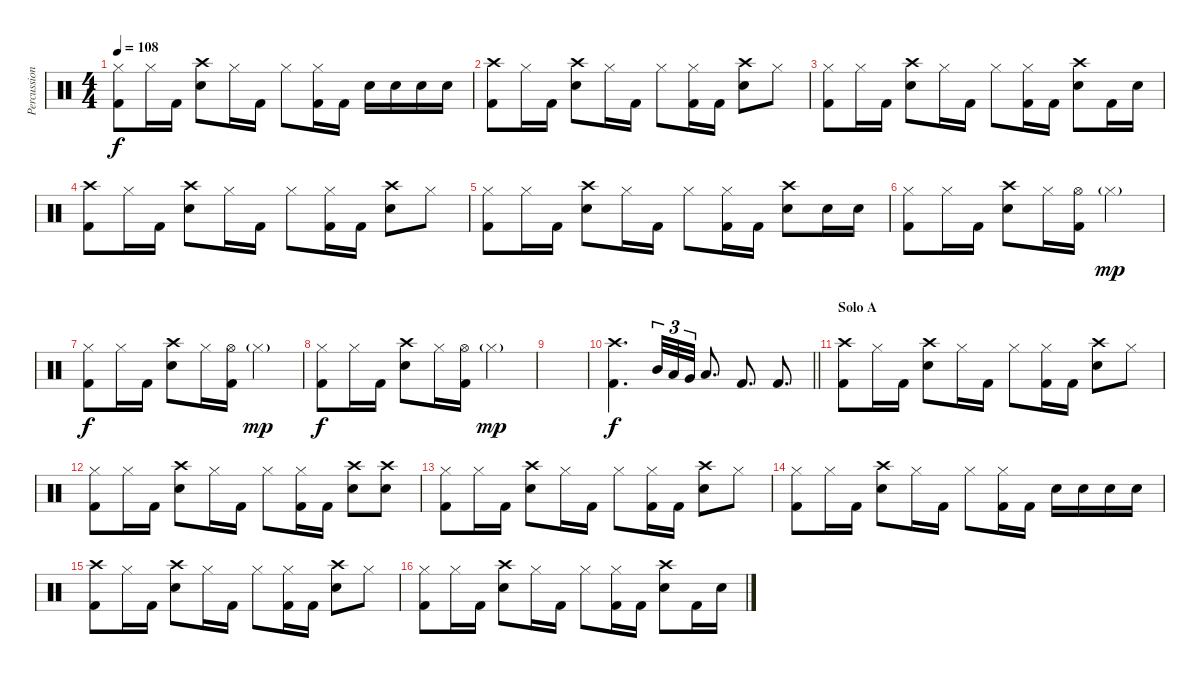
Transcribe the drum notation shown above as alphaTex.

\track ("Percussion" "Percussion") {instrument percussion}
\staff {score}
\articulation defaults
\ts (4 4)
\tempo 108
\clef neutral
\ks c
("Hi-Hat (closed)" "Kick (hit) 2").8{dy f} "Hi-Hat (closed)".16 "Kick (hit) 2".16 ("Crash high (hit)" "Snare (hit) 2").8 "Hi-Hat (closed)".16 "Kick (hit) 2".16 "Hi-Hat (closed)".8 ("Hi-Hat (closed)" "Kick (hit) 2").16 "Kick (hit) 2".16 "Snare (hit) 2".16 "Snare (hit) 2".16 "Snare (hit) 2".16 "Snare (hit) 2".16 |
("Crash high (hit)" "Kick (hit) 2").8 "Hi-Hat (closed)".16 "Kick (hit) 2".16 ("Crash high (hit)" "Snare (hit) 2").8 "Hi-Hat (closed)".16 "Kick (hit) 2".16 "Hi-Hat (closed)".8 ("Hi-Hat (closed)" "Kick (hit) 2").16 "Kick (hit) 2".16 ("Crash high (hit)" "Snare (hit) 2").8 "Hi-Hat (closed)".8 |
("Hi-Hat (closed)" "Kick (hit) 2").8 "Hi-Hat (closed)".16 "Kick (hit) 2".16 ("Crash high (hit)" "Snare (hit) 2").8 "Hi-Hat (closed)".16 "Kick (hit) 2".16 "Hi-Hat (closed)".8 ("Hi-Hat (closed)" "Kick (hit) 2").16 "Kick (hit) 2".16 ("Crash high (hit)" "Snare (hit) 2").8 "Kick (hit) 2".16 "Snare (hit) 2".16 |
("Crash high (hit)" "Kick (hit) 2").8 "Hi-Hat (closed)".16 "Kick (hit) 2".16 ("Crash high (hit)" "Snare (hit) 2").8 "Hi-Hat (closed)".16 "Kick (hit) 2".16 "Hi-Hat (closed)".8 ("Hi-Hat (closed)" "Kick (hit) 2").16 "Kick (hit) 2".16 ("Crash high (hit)" "Snare (hit) 2").8 "Hi-Hat (closed)".8 |
("Hi-Hat (closed)" "Kick (hit) 2").8 "Hi-Hat (closed)".16 "Kick (hit) 2".16 ("Crash high (hit)" "Snare (hit) 2").8 "Hi-Hat (closed)".16 "Kick (hit) 2".16 "Hi-Hat (closed)".8 ("Hi-Hat (closed)" "Kick (hit) 2").16 "Kick (hit) 2".16 ("Crash high (hit)" "Snare (hit) 2").8 "Snare (hit) 2".16 "Snare (hit) 2".16 |
("Hi-Hat (closed)" "Kick (hit) 2").8 "Hi-Hat (closed)".16 "Kick (hit) 2".16 ("Crash high (hit)" "Snare (hit) 2").8 "Hi-Hat (closed)".16 ("Hi-Hat (open)" "Kick (hit) 2").16 "Hi-Hat (closed)"{g}.2{dy mp} |
("Hi-Hat (closed)" "Kick (hit) 2").8{dy f} "Hi-Hat (closed)".16 "Kick (hit) 2".16 ("Crash high (hit)" "Snare (hit) 2").8 "Hi-Hat (closed)".16 ("Hi-Hat (open)" "Kick (hit) 2").16 "Hi-Hat (closed)"{g}.2{dy mp} |
("Hi-Hat (closed)" "Kick (hit) 2").8{dy f} "Hi-Hat (closed)".16 "Kick (hit) 2".16 ("Crash high (hit)" "Snare (hit) 2").8 "Hi-Hat (closed)".16 ("Hi-Hat (open)" "Kick (hit) 2").16 "Hi-Hat (closed)"{g}.2{dy mp} |
|
\barLineRight lightlight
("Crash high (hit)" "Kick (hit) 2").4{d dy f} "Mid Tom (hit)".32{tu (3 2)} "Low Tom (hit)".32{tu (3 2)} "Very Low Tom (hit)".32{tu (3 2)} "Low Floor Tom (hit)".8{d} "Kick (hit) 2".8{d} "Kick (hit) 2".8{d} |
\section ("" "Solo A")
("Crash high (hit)" "Kick (hit) 2").8 "Hi-Hat (closed)".16 "Kick (hit) 2".16 ("Crash high (hit)" "Snare (hit) 2").8 "Hi-Hat (closed)".16 "Kick (hit) 2".16 "Hi-Hat (closed)".8 ("Hi-Hat (closed)" "Kick (hit) 2").16 "Kick (hit) 2".16 ("Crash high (hit)" "Snare (hit) 2").8 "Hi-Hat (closed)".8 |
("Hi-Hat (closed)" "Kick (hit) 2").8 "Hi-Hat (closed)".16 "Kick (hit) 2".16 ("Crash high (hit)" "Snare (hit) 2").8 "Hi-Hat (closed)".16 "Kick (hit) 2".16 "Hi-Hat (closed)".8 ("Hi-Hat (closed)" "Kick (hit) 2").16 "Kick (hit) 2".16 ("Crash high (hit)" "Snare (hit) 2").8 ("Crash high (hit)" "Snare (hit) 2").8 |
("Hi-Hat (closed)" "Kick (hit) 2").8 "Hi-Hat (closed)".16 "Kick (hit) 2".16 ("Crash high (hit)" "Snare (hit) 2").8 "Hi-Hat (closed)".16 "Kick (hit) 2".16 "Hi-Hat (closed)".8 ("Hi-Hat (closed)" "Kick (hit) 2").16 "Kick (hit) 2".16 ("Crash high (hit)" "Snare (hit) 2").8 "Hi-Hat (closed)".8 |
("Hi-Hat (closed)" "Kick (hit) 2").8 "Hi-Hat (closed)".16 "Kick (hit) 2".16 ("Crash high (hit)" "Snare (hit) 2").8 "Hi-Hat (closed)".16 "Kick (hit) 2".16 "Hi-Hat (closed)".8 ("Hi-Hat (closed)" "Kick (hit) 2").16 "Kick (hit) 2".16 "Snare (hit) 2".16 "Snare (hit) 2".16 "Snare (hit) 2".16 "Snare (hit) 2".16 |
("Crash high (hit)" "Kick (hit) 2").8 "Hi-Hat (closed)".16 "Kick (hit) 2".16 ("Crash high (hit)" "Snare (hit) 2").8 "Hi-Hat (closed)".16 "Kick (hit) 2".16 "Hi-Hat (closed)".8 ("Hi-Hat (closed)" "Kick (hit) 2").16 "Kick (hit) 2".16 ("Crash high (hit)" "Snare (hit) 2").8 "Hi-Hat (closed)".8 |
("Hi-Hat (closed)" "Kick (hit) 2").8 "Hi-Hat (closed)".16 "Kick (hit) 2".16 ("Crash high (hit)" "Snare (hit) 2").8 "Hi-Hat (closed)".16 "Kick (hit) 2".16 "Hi-Hat (closed)".8 ("Hi-Hat (closed)" "Kick (hit) 2").16 "Kick (hit) 2".16 ("Crash high (hit)" "Snare (hit) 2").8 "Kick (hit) 2".16 "Snare (hit) 2".16
